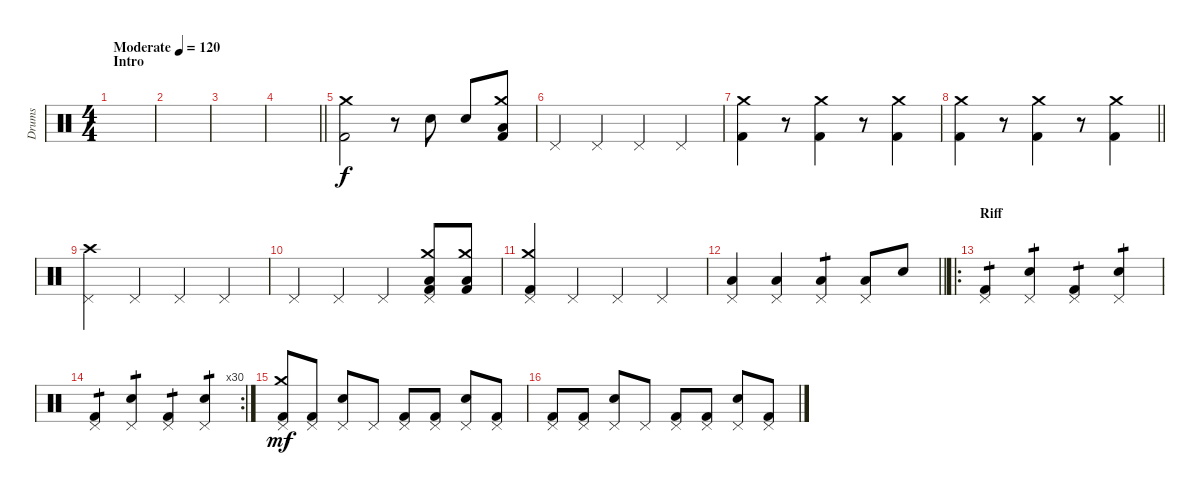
\track ("Drums" "Drums") {instrument percussion}
\staff {score}
\articulation defaults
\ts (4 4)
\section ("" "Intro")
\tempo (120 "Moderate")
\clef neutral
\ks c
|
|
|
\barLineRight lightlight
|
("Kick (hit) 2" "Crash medium (hit)").2 r.8 "Snare (hit) 2".8 "Snare (hit) 2".8 ("Low Floor Tom (hit)" "Kick (hit) 2" "Crash medium (hit)").8 |
"Pedal Hi-Hat (hit)".4 "Pedal Hi-Hat (hit)".4 "Pedal Hi-Hat (hit)".4 "Pedal Hi-Hat (hit)".4 |
("Kick (hit) 2" "Crash medium (hit)").4 r.8 ("Kick (hit) 2" "Crash medium (hit)").4 r.8 ("Kick (hit) 2" "Crash medium (hit)").4 |
\barLineRight lightlight
("Kick (hit) 2" "Crash medium (hit)").4 r.8 ("Kick (hit) 2" "Crash medium (hit)").4 r.8 ("Kick (hit) 2" "Crash medium (hit)").4 |
("Crash high (hit)" "Pedal Hi-Hat (hit)").4 "Pedal Hi-Hat (hit)".4 "Pedal Hi-Hat (hit)".4 "Pedal Hi-Hat (hit)".4 |
"Pedal Hi-Hat (hit)".4 "Pedal Hi-Hat (hit)".4 "Pedal Hi-Hat (hit)".4 ("Low Floor Tom (hit)" "Kick (hit) 2" "Crash medium (hit)" "Pedal Hi-Hat (hit)").8 ("Low Floor Tom (hit)" "Kick (hit) 2" "Crash medium (hit)").8 |
("Kick (hit) 2" "Crash medium (hit)" "Pedal Hi-Hat (hit)").4 "Pedal Hi-Hat (hit)".4 "Pedal Hi-Hat (hit)".4 "Pedal Hi-Hat (hit)".4 |
\barLineRight lightlight
("Low Floor Tom (hit)" "Pedal Hi-Hat (hit)").4 ("Low Floor Tom (hit)" "Pedal Hi-Hat (hit)").4 ("Low Floor Tom (hit)" "Pedal Hi-Hat (hit)").4{tp 1} ("Low Floor Tom (hit)" "Pedal Hi-Hat (hit)").8 "Snare (hit) 2".8 |
\ro
\section ("" "Riff")
("Kick (hit) 2" "Pedal Hi-Hat (hit)").4{tp 1} ("Snare (hit) 2" "Pedal Hi-Hat (hit)").4{tp 1} ("Kick (hit) 2" "Pedal Hi-Hat (hit)").4{tp 1} ("Snare (hit) 2" "Pedal Hi-Hat (hit)").4{tp 1} |
\rc 30
("Kick (hit) 2" "Pedal Hi-Hat (hit)").4{tp 1} ("Snare (hit) 2" "Pedal Hi-Hat (hit)").4{tp 1} ("Kick (hit) 2" "Pedal Hi-Hat (hit)").4{tp 1} ("Snare (hit) 2" "Pedal Hi-Hat (hit)").4{tp 1} |
("Kick (hit) 2" "Crash medium (hit)" "Pedal Hi-Hat (hit)").8{dy mf} ("Kick (hit) 2" "Pedal Hi-Hat (hit)").8 ("Snare (hit) 2" "Pedal Hi-Hat (hit)").8 "Pedal Hi-Hat (hit)".8 ("Kick (hit) 2" "Pedal Hi-Hat (hit)").8 ("Kick (hit) 2" "Pedal Hi-Hat (hit)").8 ("Snare (hit) 2" "Pedal Hi-Hat (hit)").8 ("Kick (hit) 2" "Pedal Hi-Hat (hit)").8 |
("Kick (hit) 2" "Pedal Hi-Hat (hit)").8 ("Kick (hit) 2" "Pedal Hi-Hat (hit)").8 ("Snare (hit) 2" "Pedal Hi-Hat (hit)").8 "Pedal Hi-Hat (hit)".8 ("Kick (hit) 2" "Pedal Hi-Hat (hit)").8 ("Kick (hit) 2" "Pedal Hi-Hat (hit)").8 ("Snare (hit) 2" "Pedal Hi-Hat (hit)").8 ("Kick (hit) 2" "Pedal Hi-Hat (hit)").8
